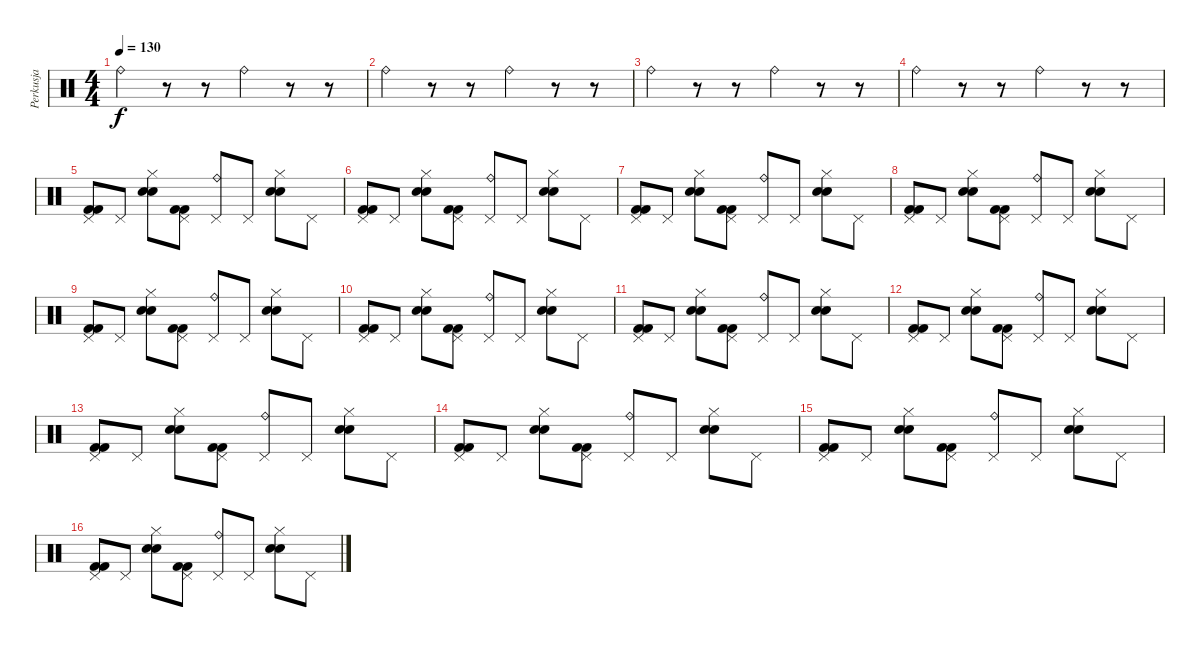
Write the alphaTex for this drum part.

\track ("Perkusja" "Perkusja") {instrument percussion}
\staff {score}
\articulation defaults
\ts (4 4)
\tempo 130
\clef neutral
\ks c "Ride (bell)".4{dy f}
r.8 r.8 "Ride (bell)".4 r.8 r.8 |
"Ride (bell)".4 r.8 r.8 "Ride (bell)".4 r.8 r.8 |
"Ride (bell)".4 r.8 r.8 "Ride (bell)".4 r.8 r.8 |
"Ride (bell)".4 r.8 r.8 "Ride (bell)".4 r.8 r.8 |
("Pedal Hi-Hat (hit)" "Kick (hit) 2" "Kick (hit) 2").8 "Pedal Hi-Hat (hit)".8 ("Hi-Hat (closed)" "Electric Snare (hit)" "Electric Snare (hit)").8 ("Pedal Hi-Hat (hit)" "Kick (hit) 2" "Kick (hit) 2").8 ("Ride (bell)" "Pedal Hi-Hat (hit)").8 "Pedal Hi-Hat (hit)".8 ("Hi-Hat (closed)" "Electric Snare (hit)" "Electric Snare (hit)").8 "Pedal Hi-Hat (hit)".8 |
("Pedal Hi-Hat (hit)" "Kick (hit) 2" "Kick (hit) 2").8 "Pedal Hi-Hat (hit)".8 ("Hi-Hat (closed)" "Electric Snare (hit)" "Electric Snare (hit)").8 ("Pedal Hi-Hat (hit)" "Kick (hit) 2" "Kick (hit) 2").8 ("Ride (bell)" "Pedal Hi-Hat (hit)").8 "Pedal Hi-Hat (hit)".8 ("Hi-Hat (closed)" "Electric Snare (hit)" "Electric Snare (hit)").8 "Pedal Hi-Hat (hit)".8 |
("Pedal Hi-Hat (hit)" "Kick (hit) 2" "Kick (hit) 2").8 "Pedal Hi-Hat (hit)".8 ("Hi-Hat (closed)" "Electric Snare (hit)" "Electric Snare (hit)").8 ("Pedal Hi-Hat (hit)" "Kick (hit) 2" "Kick (hit) 2").8 ("Ride (bell)" "Pedal Hi-Hat (hit)").8 "Pedal Hi-Hat (hit)".8 ("Hi-Hat (closed)" "Electric Snare (hit)" "Electric Snare (hit)").8 "Pedal Hi-Hat (hit)".8 |
("Pedal Hi-Hat (hit)" "Kick (hit) 2" "Kick (hit) 2").8 "Pedal Hi-Hat (hit)".8 ("Hi-Hat (closed)" "Electric Snare (hit)" "Electric Snare (hit)").8 ("Pedal Hi-Hat (hit)" "Kick (hit) 2" "Kick (hit) 2").8 ("Ride (bell)" "Pedal Hi-Hat (hit)").8 "Pedal Hi-Hat (hit)".8 ("Hi-Hat (closed)" "Electric Snare (hit)" "Electric Snare (hit)").8 "Pedal Hi-Hat (hit)".8 |
("Pedal Hi-Hat (hit)" "Kick (hit) 2" "Kick (hit) 2").8 "Pedal Hi-Hat (hit)".8 ("Hi-Hat (closed)" "Electric Snare (hit)" "Electric Snare (hit)").8 ("Pedal Hi-Hat (hit)" "Kick (hit) 2" "Kick (hit) 2").8 ("Ride (bell)" "Pedal Hi-Hat (hit)").8 "Pedal Hi-Hat (hit)".8 ("Hi-Hat (closed)" "Electric Snare (hit)" "Electric Snare (hit)").8 "Pedal Hi-Hat (hit)".8 |
("Pedal Hi-Hat (hit)" "Kick (hit) 2" "Kick (hit) 2").8 "Pedal Hi-Hat (hit)".8 ("Hi-Hat (closed)" "Electric Snare (hit)" "Electric Snare (hit)").8 ("Pedal Hi-Hat (hit)" "Kick (hit) 2" "Kick (hit) 2").8 ("Ride (bell)" "Pedal Hi-Hat (hit)").8 "Pedal Hi-Hat (hit)".8 ("Hi-Hat (closed)" "Electric Snare (hit)" "Electric Snare (hit)").8 "Pedal Hi-Hat (hit)".8 |
("Pedal Hi-Hat (hit)" "Kick (hit) 2" "Kick (hit) 2").8 "Pedal Hi-Hat (hit)".8 ("Hi-Hat (closed)" "Electric Snare (hit)" "Electric Snare (hit)").8 ("Pedal Hi-Hat (hit)" "Kick (hit) 2" "Kick (hit) 2").8 ("Ride (bell)" "Pedal Hi-Hat (hit)").8 "Pedal Hi-Hat (hit)".8 ("Hi-Hat (closed)" "Electric Snare (hit)" "Electric Snare (hit)").8 "Pedal Hi-Hat (hit)".8 |
("Pedal Hi-Hat (hit)" "Kick (hit) 2" "Kick (hit) 2").8 "Pedal Hi-Hat (hit)".8 ("Hi-Hat (closed)" "Electric Snare (hit)" "Electric Snare (hit)").8 ("Pedal Hi-Hat (hit)" "Kick (hit) 2" "Kick (hit) 2").8 ("Ride (bell)" "Pedal Hi-Hat (hit)").8 "Pedal Hi-Hat (hit)".8 ("Hi-Hat (closed)" "Electric Snare (hit)" "Electric Snare (hit)").8 "Pedal Hi-Hat (hit)".8 |
("Pedal Hi-Hat (hit)" "Kick (hit) 2" "Kick (hit) 2").8 "Pedal Hi-Hat (hit)".8 ("Hi-Hat (closed)" "Electric Snare (hit)" "Electric Snare (hit)").8 ("Pedal Hi-Hat (hit)" "Kick (hit) 2" "Kick (hit) 2").8 ("Ride (bell)" "Pedal Hi-Hat (hit)").8 "Pedal Hi-Hat (hit)".8 ("Hi-Hat (closed)" "Electric Snare (hit)" "Electric Snare (hit)").8 "Pedal Hi-Hat (hit)".8 |
("Pedal Hi-Hat (hit)" "Kick (hit) 2" "Kick (hit) 2").8 "Pedal Hi-Hat (hit)".8 ("Hi-Hat (closed)" "Electric Snare (hit)" "Electric Snare (hit)").8 ("Pedal Hi-Hat (hit)" "Kick (hit) 2" "Kick (hit) 2").8 ("Ride (bell)" "Pedal Hi-Hat (hit)").8 "Pedal Hi-Hat (hit)".8 ("Hi-Hat (closed)" "Electric Snare (hit)" "Electric Snare (hit)").8 "Pedal Hi-Hat (hit)".8 |
("Pedal Hi-Hat (hit)" "Kick (hit) 2" "Kick (hit) 2").8 "Pedal Hi-Hat (hit)".8 ("Hi-Hat (closed)" "Electric Snare (hit)" "Electric Snare (hit)").8 ("Pedal Hi-Hat (hit)" "Kick (hit) 2" "Kick (hit) 2").8 ("Ride (bell)" "Pedal Hi-Hat (hit)").8 "Pedal Hi-Hat (hit)".8 ("Hi-Hat (closed)" "Electric Snare (hit)" "Electric Snare (hit)").8 "Pedal Hi-Hat (hit)".8 |
("Pedal Hi-Hat (hit)" "Kick (hit) 2" "Kick (hit) 2").8 "Pedal Hi-Hat (hit)".8 ("Hi-Hat (closed)" "Electric Snare (hit)" "Electric Snare (hit)").8 ("Pedal Hi-Hat (hit)" "Kick (hit) 2" "Kick (hit) 2").8 ("Ride (bell)" "Pedal Hi-Hat (hit)").8 "Pedal Hi-Hat (hit)".8 ("Hi-Hat (closed)" "Electric Snare (hit)" "Electric Snare (hit)").8 "Pedal Hi-Hat (hit)".8
